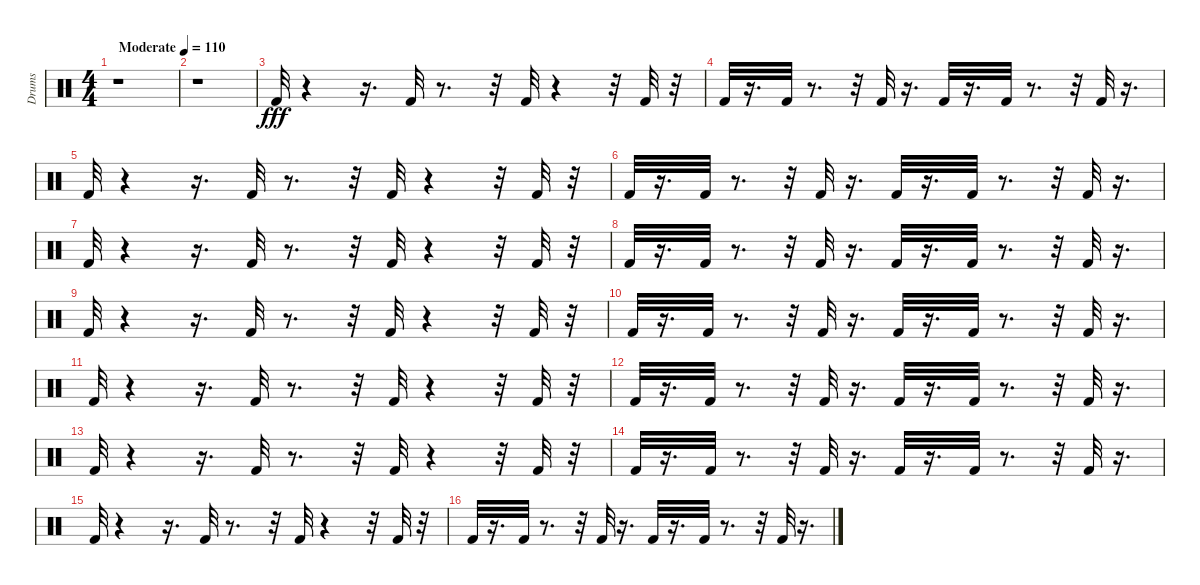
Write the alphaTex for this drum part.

\track ("Drums" "Drums") {instrument percussion}
\staff {score}
\articulation defaults
\ts (4 4)
\tempo (110 "Moderate")
\clef neutral
\ks c
r.1{dy fff} |
r.1 |
"Kick (hit) 2".32 r.4 r.16{d} "Kick (hit) 2".32 r.8{d} r.32 "Kick (hit) 2".32 r.4 r.32 "Kick (hit) 2".32 r.32 |
"Kick (hit) 2".32 r.16{d} "Kick (hit) 2".32 r.8{d} r.32 "Kick (hit) 2".32 r.16{d} "Kick (hit) 2".32 r.16{d} "Kick (hit) 2".32 r.8{d} r.32 "Kick (hit) 2".32 r.16{d} |
"Kick (hit) 2".32 r.4 r.16{d} "Kick (hit) 2".32 r.8{d} r.32 "Kick (hit) 2".32 r.4 r.32 "Kick (hit) 2".32 r.32 |
"Kick (hit) 2".32 r.16{d} "Kick (hit) 2".32 r.8{d} r.32 "Kick (hit) 2".32 r.16{d} "Kick (hit) 2".32 r.16{d} "Kick (hit) 2".32 r.8{d} r.32 "Kick (hit) 2".32 r.16{d} |
"Kick (hit) 2".32 r.4 r.16{d} "Kick (hit) 2".32 r.8{d} r.32 "Kick (hit) 2".32 r.4 r.32 "Kick (hit) 2".32 r.32 |
"Kick (hit) 2".32 r.16{d} "Kick (hit) 2".32 r.8{d} r.32 "Kick (hit) 2".32 r.16{d} "Kick (hit) 2".32 r.16{d} "Kick (hit) 2".32 r.8{d} r.32 "Kick (hit) 2".32 r.16{d} |
"Kick (hit) 2".32 r.4 r.16{d} "Kick (hit) 2".32 r.8{d} r.32 "Kick (hit) 2".32 r.4 r.32 "Kick (hit) 2".32 r.32 |
"Kick (hit) 2".32 r.16{d} "Kick (hit) 2".32 r.8{d} r.32 "Kick (hit) 2".32 r.16{d} "Kick (hit) 2".32 r.16{d} "Kick (hit) 2".32 r.8{d} r.32 "Kick (hit) 2".32 r.16{d} |
"Kick (hit) 2".32 r.4 r.16{d} "Kick (hit) 2".32 r.8{d} r.32 "Kick (hit) 2".32 r.4 r.32 "Kick (hit) 2".32 r.32 |
"Kick (hit) 2".32 r.16{d} "Kick (hit) 2".32 r.8{d} r.32 "Kick (hit) 2".32 r.16{d} "Kick (hit) 2".32 r.16{d} "Kick (hit) 2".32 r.8{d} r.32 "Kick (hit) 2".32 r.16{d} |
"Kick (hit) 2".32 r.4 r.16{d} "Kick (hit) 2".32 r.8{d} r.32 "Kick (hit) 2".32 r.4 r.32 "Kick (hit) 2".32 r.32 |
"Kick (hit) 2".32 r.16{d} "Kick (hit) 2".32 r.8{d} r.32 "Kick (hit) 2".32 r.16{d} "Kick (hit) 2".32 r.16{d} "Kick (hit) 2".32 r.8{d} r.32 "Kick (hit) 2".32 r.16{d} |
"Kick (hit) 2".32 r.4 r.16{d} "Kick (hit) 2".32 r.8{d} r.32 "Kick (hit) 2".32 r.4 r.32 "Kick (hit) 2".32 r.32 |
"Kick (hit) 2".32 r.16{d} "Kick (hit) 2".32 r.8{d} r.32 "Kick (hit) 2".32 r.16{d} "Kick (hit) 2".32 r.16{d} "Kick (hit) 2".32 r.8{d} r.32 "Kick (hit) 2".32 r.16{d}
